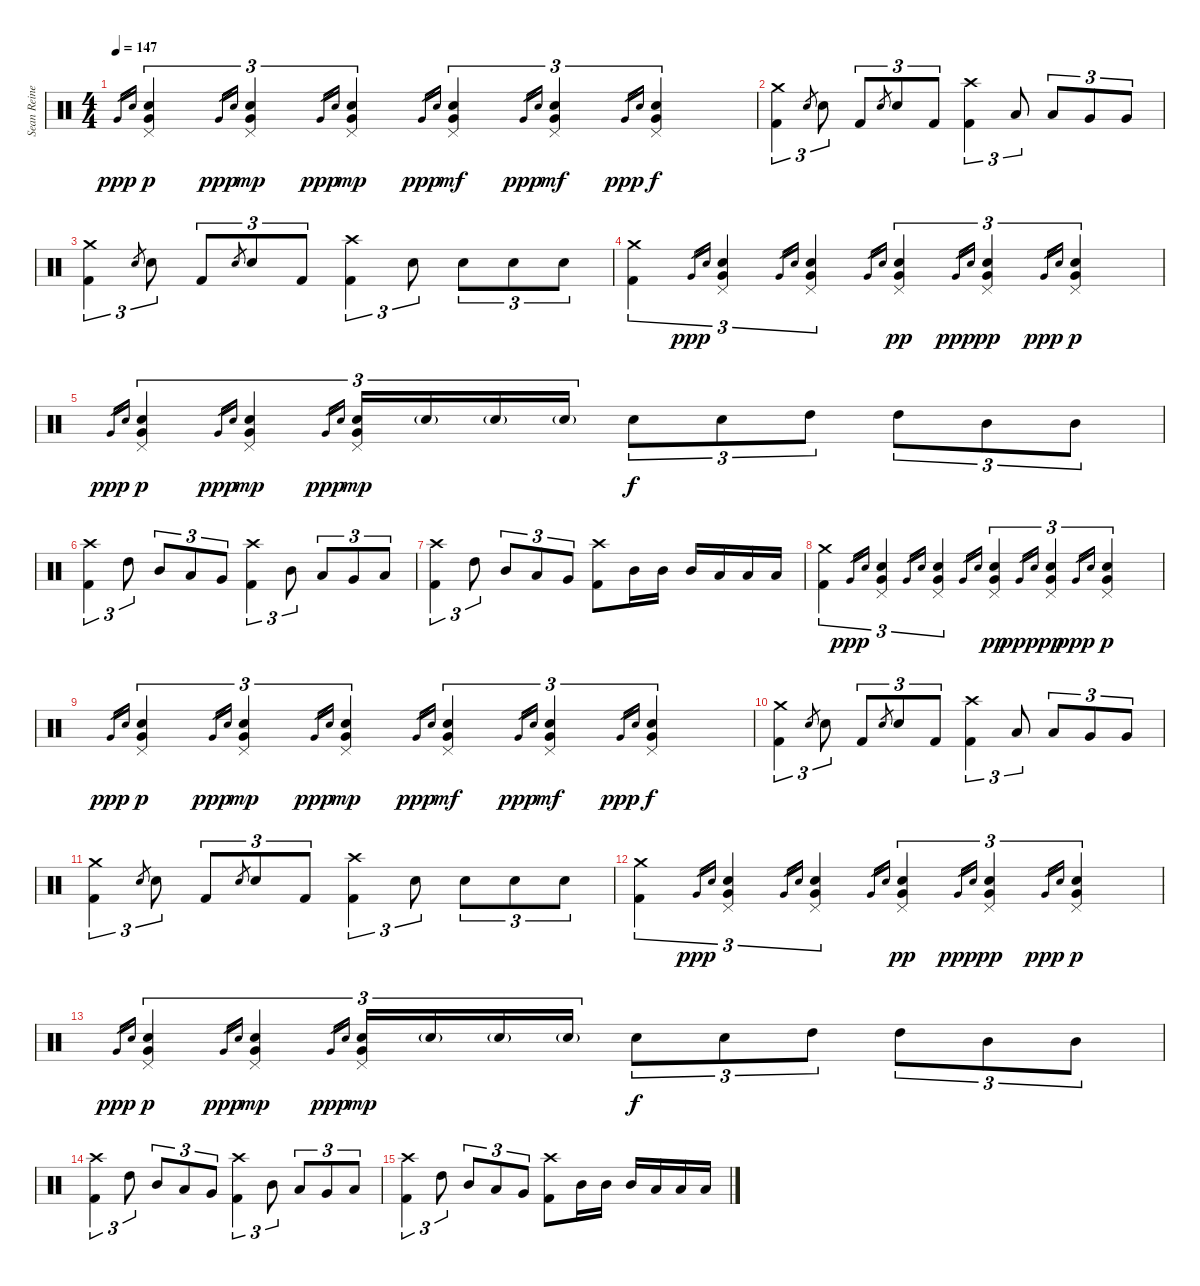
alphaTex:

\track ("Sean Reinert" "Sean Reine") {instrument percussion}
\staff {score}
\articulation defaults
\ts (4 4)
\tempo 147
\clef neutral
\ks c "Very Low Tom (hit)".16{gr dy ppp} "Snare (hit) 2".16{gr}
("Pedal Hi-Hat (hit)" "Very Low Tom (hit)" "Snare (hit) 2").4{tu (3 2) dy p} "Very Low Tom (hit)".16{gr dy ppp} "Snare (hit) 2".16{gr} ("Pedal Hi-Hat (hit)" "Very Low Tom (hit)" "Snare (hit) 2").4{tu (3 2) dy mp} "Very Low Tom (hit)".16{gr dy ppp} "Snare (hit) 2".16{gr} ("Pedal Hi-Hat (hit)" "Very Low Tom (hit)" "Snare (hit) 2").4{tu (3 2) dy mp} "Very Low Tom (hit)".16{gr dy ppp} "Snare (hit) 2".16{gr} ("Pedal Hi-Hat (hit)" "Very Low Tom (hit)" "Snare (hit) 2").4{tu (3 2) dy mf} "Very Low Tom (hit)".16{gr dy ppp} "Snare (hit) 2".16{gr} ("Pedal Hi-Hat (hit)" "Very Low Tom (hit)" "Snare (hit) 2").4{tu (3 2) dy mf} "Very Low Tom (hit)".16{gr dy ppp} "Snare (hit) 2".16{gr} ("Pedal Hi-Hat (hit)" "Very Low Tom (hit)" "Snare (hit) 2").4{tu (3 2) dy f} |
("Crash medium (hit)" "Kick (hit) 2").4{tu (3 2)} "Snare (hit) 2".8{gr} "Snare (hit) 2".8{tu (3 2)} "Kick (hit) 2".8{tu (3 2)} "Snare (hit) 2".8{gr} "Snare (hit) 2".8{tu (3 2)} "Kick (hit) 2".8{tu (3 2)} ("Crash high (hit)" "Kick (hit) 2").4{tu (3 2)} "Low Tom (hit)".8{tu (3 2)} "Low Tom (hit)".8{tu (3 2)} "Very Low Tom (hit)".8{tu (3 2)} "Very Low Tom (hit)".8{tu (3 2)} |
("Crash medium (hit)" "Kick (hit) 2").4{tu (3 2)} "Snare (hit) 2".8{gr} "Snare (hit) 2".8{tu (3 2)} "Kick (hit) 2".8{tu (3 2)} "Snare (hit) 2".8{gr} "Snare (hit) 2".8{tu (3 2)} "Kick (hit) 2".8{tu (3 2)} ("Crash high (hit)" "Kick (hit) 2").4{tu (3 2)} "Snare (hit) 2".8{tu (3 2)} "Snare (hit) 2".8{tu (3 2)} "Snare (hit) 2".8{tu (3 2)} "Snare (hit) 2".8{tu (3 2)} |
("Crash medium (hit)" "Kick (hit) 2").4{tu (3 2)} "Very Low Tom (hit)".16{gr dy ppp} "Snare (hit) 2".16{gr} ("Pedal Hi-Hat (hit)" "Very Low Tom (hit)" "Snare (hit) 2").4{tu (3 2)} "Very Low Tom (hit)".16{gr} "Snare (hit) 2".16{gr} ("Pedal Hi-Hat (hit)" "Very Low Tom (hit)" "Snare (hit) 2").4{tu (3 2)} "Very Low Tom (hit)".16{gr} "Snare (hit) 2".16{gr} ("Pedal Hi-Hat (hit)" "Very Low Tom (hit)" "Snare (hit) 2").4{tu (3 2) dy pp} "Very Low Tom (hit)".16{gr dy ppp} "Snare (hit) 2".16{gr} ("Pedal Hi-Hat (hit)" "Very Low Tom (hit)" "Snare (hit) 2").4{tu (3 2) dy pp} "Very Low Tom (hit)".16{gr dy ppp} "Snare (hit) 2".16{gr} ("Pedal Hi-Hat (hit)" "Very Low Tom (hit)" "Snare (hit) 2").4{tu (3 2) dy p} |
"Very Low Tom (hit)".16{gr dy ppp} "Snare (hit) 2".16{gr} ("Pedal Hi-Hat (hit)" "Very Low Tom (hit)" "Snare (hit) 2").4{tu (3 2) dy p} "Very Low Tom (hit)".16{gr dy ppp} "Snare (hit) 2".16{gr} ("Pedal Hi-Hat (hit)" "Very Low Tom (hit)" "Snare (hit) 2").4{tu (3 2) dy mp} "Very Low Tom (hit)".16{gr dy ppp} "Snare (hit) 2".16{gr} ("Pedal Hi-Hat (hit)" "Very Low Tom (hit)" "Snare (hit) 2").16{tu (3 2) dy mp} "Snare (hit) 2"{g}.16{tu (3 2)} "Snare (hit) 2"{g}.16{tu (3 2)} "Snare (hit) 2"{g}.16{tu (3 2)} "Snare (hit) 2".8{tu (3 2) dy f} "Snare (hit) 2".8{tu (3 2)} "High Tom (hit)".8{tu (3 2)} "High Tom (hit)".8{tu (3 2)} "Mid Tom (hit)".8{tu (3 2)} "Mid Tom (hit)".8{tu (3 2)} |
("Crash high (hit)" "Kick (hit) 2").4{tu (3 2)} "High Tom (hit)".8{tu (3 2)} "Mid Tom (hit)".8{tu (3 2)} "Low Tom (hit)".8{tu (3 2)} "Very Low Tom (hit)".8{tu (3 2)} ("Crash high (hit)" "Kick (hit) 2").4{tu (3 2)} "Mid Tom (hit)".8{tu (3 2)} "Low Tom (hit)".8{tu (3 2)} "Very Low Tom (hit)".8{tu (3 2)} "Low Floor Tom (hit)".8{tu (3 2)} |
("Crash high (hit)" "Kick (hit) 2").4{tu (3 2)} "High Tom (hit)".8{tu (3 2)} "Mid Tom (hit)".8{tu (3 2)} "Low Tom (hit)".8{tu (3 2)} "Very Low Tom (hit)".8{tu (3 2)} ("Crash high (hit)" "Kick (hit) 2").8 "Mid Tom (hit)".16 "Mid Tom (hit)".16 "Mid Tom (hit)".16 "Low Tom (hit)".16 "Low Tom (hit)".16 "Low Tom (hit)".16 |
("Crash medium (hit)" "Kick (hit) 2").4{tu (3 2)} "Very Low Tom (hit)".16{gr dy ppp} "Snare (hit) 2".16{gr} ("Pedal Hi-Hat (hit)" "Very Low Tom (hit)" "Snare (hit) 2").4{tu (3 2)} "Very Low Tom (hit)".16{gr} "Snare (hit) 2".16{gr} ("Pedal Hi-Hat (hit)" "Very Low Tom (hit)" "Snare (hit) 2").4{tu (3 2)} "Very Low Tom (hit)".16{gr} "Snare (hit) 2".16{gr} ("Pedal Hi-Hat (hit)" "Very Low Tom (hit)" "Snare (hit) 2").4{tu (3 2) dy pp} "Very Low Tom (hit)".16{gr dy ppp} "Snare (hit) 2".16{gr} ("Pedal Hi-Hat (hit)" "Very Low Tom (hit)" "Snare (hit) 2").4{tu (3 2) dy pp} "Very Low Tom (hit)".16{gr dy ppp} "Snare (hit) 2".16{gr} ("Pedal Hi-Hat (hit)" "Very Low Tom (hit)" "Snare (hit) 2").4{tu (3 2) dy p} |
"Very Low Tom (hit)".16{gr dy ppp} "Snare (hit) 2".16{gr} ("Pedal Hi-Hat (hit)" "Very Low Tom (hit)" "Snare (hit) 2").4{tu (3 2) dy p} "Very Low Tom (hit)".16{gr dy ppp} "Snare (hit) 2".16{gr} ("Pedal Hi-Hat (hit)" "Very Low Tom (hit)" "Snare (hit) 2").4{tu (3 2) dy mp} "Very Low Tom (hit)".16{gr dy ppp} "Snare (hit) 2".16{gr} ("Pedal Hi-Hat (hit)" "Very Low Tom (hit)" "Snare (hit) 2").4{tu (3 2) dy mp} "Very Low Tom (hit)".16{gr dy ppp} "Snare (hit) 2".16{gr} ("Pedal Hi-Hat (hit)" "Very Low Tom (hit)" "Snare (hit) 2").4{tu (3 2) dy mf} "Very Low Tom (hit)".16{gr dy ppp} "Snare (hit) 2".16{gr} ("Pedal Hi-Hat (hit)" "Very Low Tom (hit)" "Snare (hit) 2").4{tu (3 2) dy mf} "Very Low Tom (hit)".16{gr dy ppp} "Snare (hit) 2".16{gr} ("Pedal Hi-Hat (hit)" "Very Low Tom (hit)" "Snare (hit) 2").4{tu (3 2) dy f} |
("Crash medium (hit)" "Kick (hit) 2").4{tu (3 2)} "Snare (hit) 2".8{gr} "Snare (hit) 2".8{tu (3 2)} "Kick (hit) 2".8{tu (3 2)} "Snare (hit) 2".8{gr} "Snare (hit) 2".8{tu (3 2)} "Kick (hit) 2".8{tu (3 2)} ("Crash high (hit)" "Kick (hit) 2").4{tu (3 2)} "Low Tom (hit)".8{tu (3 2)} "Low Tom (hit)".8{tu (3 2)} "Very Low Tom (hit)".8{tu (3 2)} "Very Low Tom (hit)".8{tu (3 2)} |
("Crash medium (hit)" "Kick (hit) 2").4{tu (3 2)} "Snare (hit) 2".8{gr} "Snare (hit) 2".8{tu (3 2)} "Kick (hit) 2".8{tu (3 2)} "Snare (hit) 2".8{gr} "Snare (hit) 2".8{tu (3 2)} "Kick (hit) 2".8{tu (3 2)} ("Crash high (hit)" "Kick (hit) 2").4{tu (3 2)} "Snare (hit) 2".8{tu (3 2)} "Snare (hit) 2".8{tu (3 2)} "Snare (hit) 2".8{tu (3 2)} "Snare (hit) 2".8{tu (3 2)} |
("Crash medium (hit)" "Kick (hit) 2").4{tu (3 2)} "Very Low Tom (hit)".16{gr dy ppp} "Snare (hit) 2".16{gr} ("Pedal Hi-Hat (hit)" "Very Low Tom (hit)" "Snare (hit) 2").4{tu (3 2)} "Very Low Tom (hit)".16{gr} "Snare (hit) 2".16{gr} ("Pedal Hi-Hat (hit)" "Very Low Tom (hit)" "Snare (hit) 2").4{tu (3 2)} "Very Low Tom (hit)".16{gr} "Snare (hit) 2".16{gr} ("Pedal Hi-Hat (hit)" "Very Low Tom (hit)" "Snare (hit) 2").4{tu (3 2) dy pp} "Very Low Tom (hit)".16{gr dy ppp} "Snare (hit) 2".16{gr} ("Pedal Hi-Hat (hit)" "Very Low Tom (hit)" "Snare (hit) 2").4{tu (3 2) dy pp} "Very Low Tom (hit)".16{gr dy ppp} "Snare (hit) 2".16{gr} ("Pedal Hi-Hat (hit)" "Very Low Tom (hit)" "Snare (hit) 2").4{tu (3 2) dy p} |
"Very Low Tom (hit)".16{gr dy ppp} "Snare (hit) 2".16{gr} ("Pedal Hi-Hat (hit)" "Very Low Tom (hit)" "Snare (hit) 2").4{tu (3 2) dy p} "Very Low Tom (hit)".16{gr dy ppp} "Snare (hit) 2".16{gr} ("Pedal Hi-Hat (hit)" "Very Low Tom (hit)" "Snare (hit) 2").4{tu (3 2) dy mp} "Very Low Tom (hit)".16{gr dy ppp} "Snare (hit) 2".16{gr} ("Pedal Hi-Hat (hit)" "Very Low Tom (hit)" "Snare (hit) 2").16{tu (3 2) dy mp} "Snare (hit) 2"{g}.16{tu (3 2)} "Snare (hit) 2"{g}.16{tu (3 2)} "Snare (hit) 2"{g}.16{tu (3 2)} "Snare (hit) 2".8{tu (3 2) dy f} "Snare (hit) 2".8{tu (3 2)} "High Tom (hit)".8{tu (3 2)} "High Tom (hit)".8{tu (3 2)} "Mid Tom (hit)".8{tu (3 2)} "Mid Tom (hit)".8{tu (3 2)} |
("Crash high (hit)" "Kick (hit) 2").4{tu (3 2)} "High Tom (hit)".8{tu (3 2)} "Mid Tom (hit)".8{tu (3 2)} "Low Tom (hit)".8{tu (3 2)} "Very Low Tom (hit)".8{tu (3 2)} ("Crash high (hit)" "Kick (hit) 2").4{tu (3 2)} "Mid Tom (hit)".8{tu (3 2)} "Low Tom (hit)".8{tu (3 2)} "Very Low Tom (hit)".8{tu (3 2)} "Low Floor Tom (hit)".8{tu (3 2)} |
("Crash high (hit)" "Kick (hit) 2").4{tu (3 2)} "High Tom (hit)".8{tu (3 2)} "Mid Tom (hit)".8{tu (3 2)} "Low Tom (hit)".8{tu (3 2)} "Very Low Tom (hit)".8{tu (3 2)} ("Crash high (hit)" "Kick (hit) 2").8 "Mid Tom (hit)".16 "Mid Tom (hit)".16 "Mid Tom (hit)".16 "Low Tom (hit)".16 "Low Tom (hit)".16 "Low Tom (hit)".16
